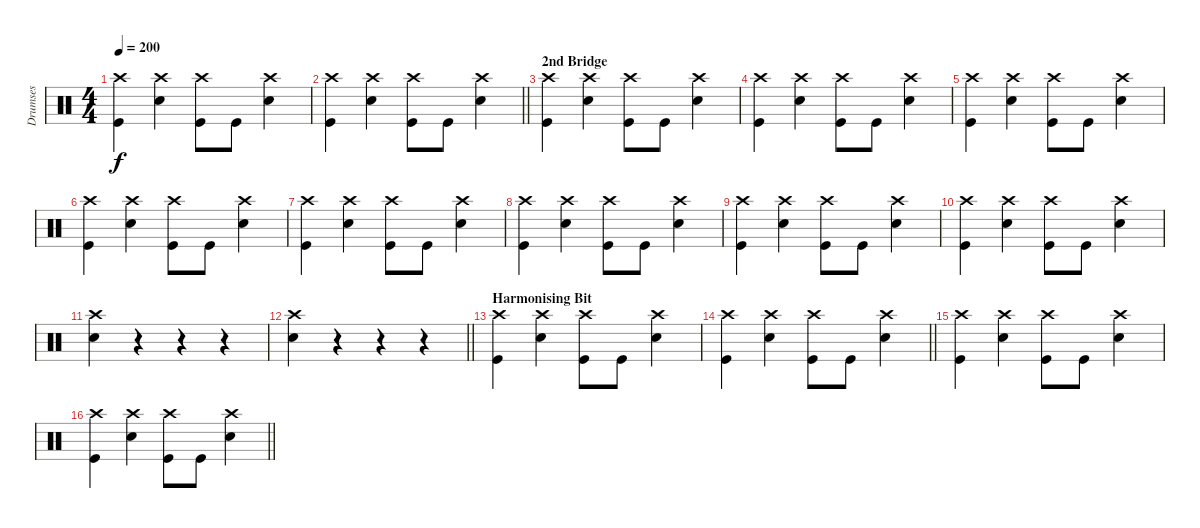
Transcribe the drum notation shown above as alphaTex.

\track ("Drumses" "Drumses") {instrument percussion}
\staff {score}
\articulation defaults
\ts (4 4)
\tempo 200
\clef neutral
\ks c
("Crash high (hit)" "Kick (hit)").4{dy f} ("Crash high (hit)" "Snare (hit) 2").4 ("Crash high (hit)" "Kick (hit)").8 "Kick (hit)".8 ("Crash high (hit)" "Snare (hit) 2").4 |
\barLineRight lightlight
("Crash high (hit)" "Kick (hit)").4 ("Crash high (hit)" "Snare (hit) 2").4 ("Crash high (hit)" "Kick (hit)").8 "Kick (hit)".8 ("Crash high (hit)" "Snare (hit) 2").4 |
\section ("" "2nd Bridge")
("Crash high (hit)" "Kick (hit)").4 ("Crash high (hit)" "Snare (hit) 2").4 ("Crash high (hit)" "Kick (hit)").8 "Kick (hit)".8 ("Crash high (hit)" "Snare (hit) 2").4 |
("Crash high (hit)" "Kick (hit)").4 ("Crash high (hit)" "Snare (hit) 2").4 ("Crash high (hit)" "Kick (hit)").8 "Kick (hit)".8 ("Crash high (hit)" "Snare (hit) 2").4 |
("Crash high (hit)" "Kick (hit)").4 ("Crash high (hit)" "Snare (hit) 2").4 ("Crash high (hit)" "Kick (hit)").8 "Kick (hit)".8 ("Crash high (hit)" "Snare (hit) 2").4 |
("Crash high (hit)" "Kick (hit)").4 ("Crash high (hit)" "Snare (hit) 2").4 ("Crash high (hit)" "Kick (hit)").8 "Kick (hit)".8 ("Crash high (hit)" "Snare (hit) 2").4 |
("Crash high (hit)" "Kick (hit)").4 ("Crash high (hit)" "Snare (hit) 2").4 ("Crash high (hit)" "Kick (hit)").8 "Kick (hit)".8 ("Crash high (hit)" "Snare (hit) 2").4 |
("Crash high (hit)" "Kick (hit)").4 ("Crash high (hit)" "Snare (hit) 2").4 ("Crash high (hit)" "Kick (hit)").8 "Kick (hit)".8 ("Crash high (hit)" "Snare (hit) 2").4 |
("Crash high (hit)" "Kick (hit)").4 ("Crash high (hit)" "Snare (hit) 2").4 ("Crash high (hit)" "Kick (hit)").8 "Kick (hit)".8 ("Crash high (hit)" "Snare (hit) 2").4 |
("Crash high (hit)" "Kick (hit)").4 ("Crash high (hit)" "Snare (hit) 2").4 ("Crash high (hit)" "Kick (hit)").8 "Kick (hit)".8 ("Crash high (hit)" "Snare (hit) 2").4 |
("Crash high (hit)" "Snare (hit) 2").4 r.4 r.4 r.4 |
\barLineRight lightlight
("Crash high (hit)" "Snare (hit) 2").4 r.4 r.4 r.4 |
\section ("" "Harmonising Bit")
("Crash high (hit)" "Kick (hit)").4 ("Crash high (hit)" "Snare (hit) 2").4 ("Crash high (hit)" "Kick (hit)").8 "Kick (hit)".8 ("Crash high (hit)" "Snare (hit) 2").4 |
\barLineRight lightlight
("Crash high (hit)" "Kick (hit)").4 ("Crash high (hit)" "Snare (hit) 2").4 ("Crash high (hit)" "Kick (hit)").8 "Kick (hit)".8 ("Crash high (hit)" "Snare (hit) 2").4 |
("Crash high (hit)" "Kick (hit)").4 ("Crash high (hit)" "Snare (hit) 2").4 ("Crash high (hit)" "Kick (hit)").8 "Kick (hit)".8 ("Crash high (hit)" "Snare (hit) 2").4 |
\barLineRight lightlight
("Crash high (hit)" "Kick (hit)").4 ("Crash high (hit)" "Snare (hit) 2").4 ("Crash high (hit)" "Kick (hit)").8 "Kick (hit)".8 ("Crash high (hit)" "Snare (hit) 2").4
